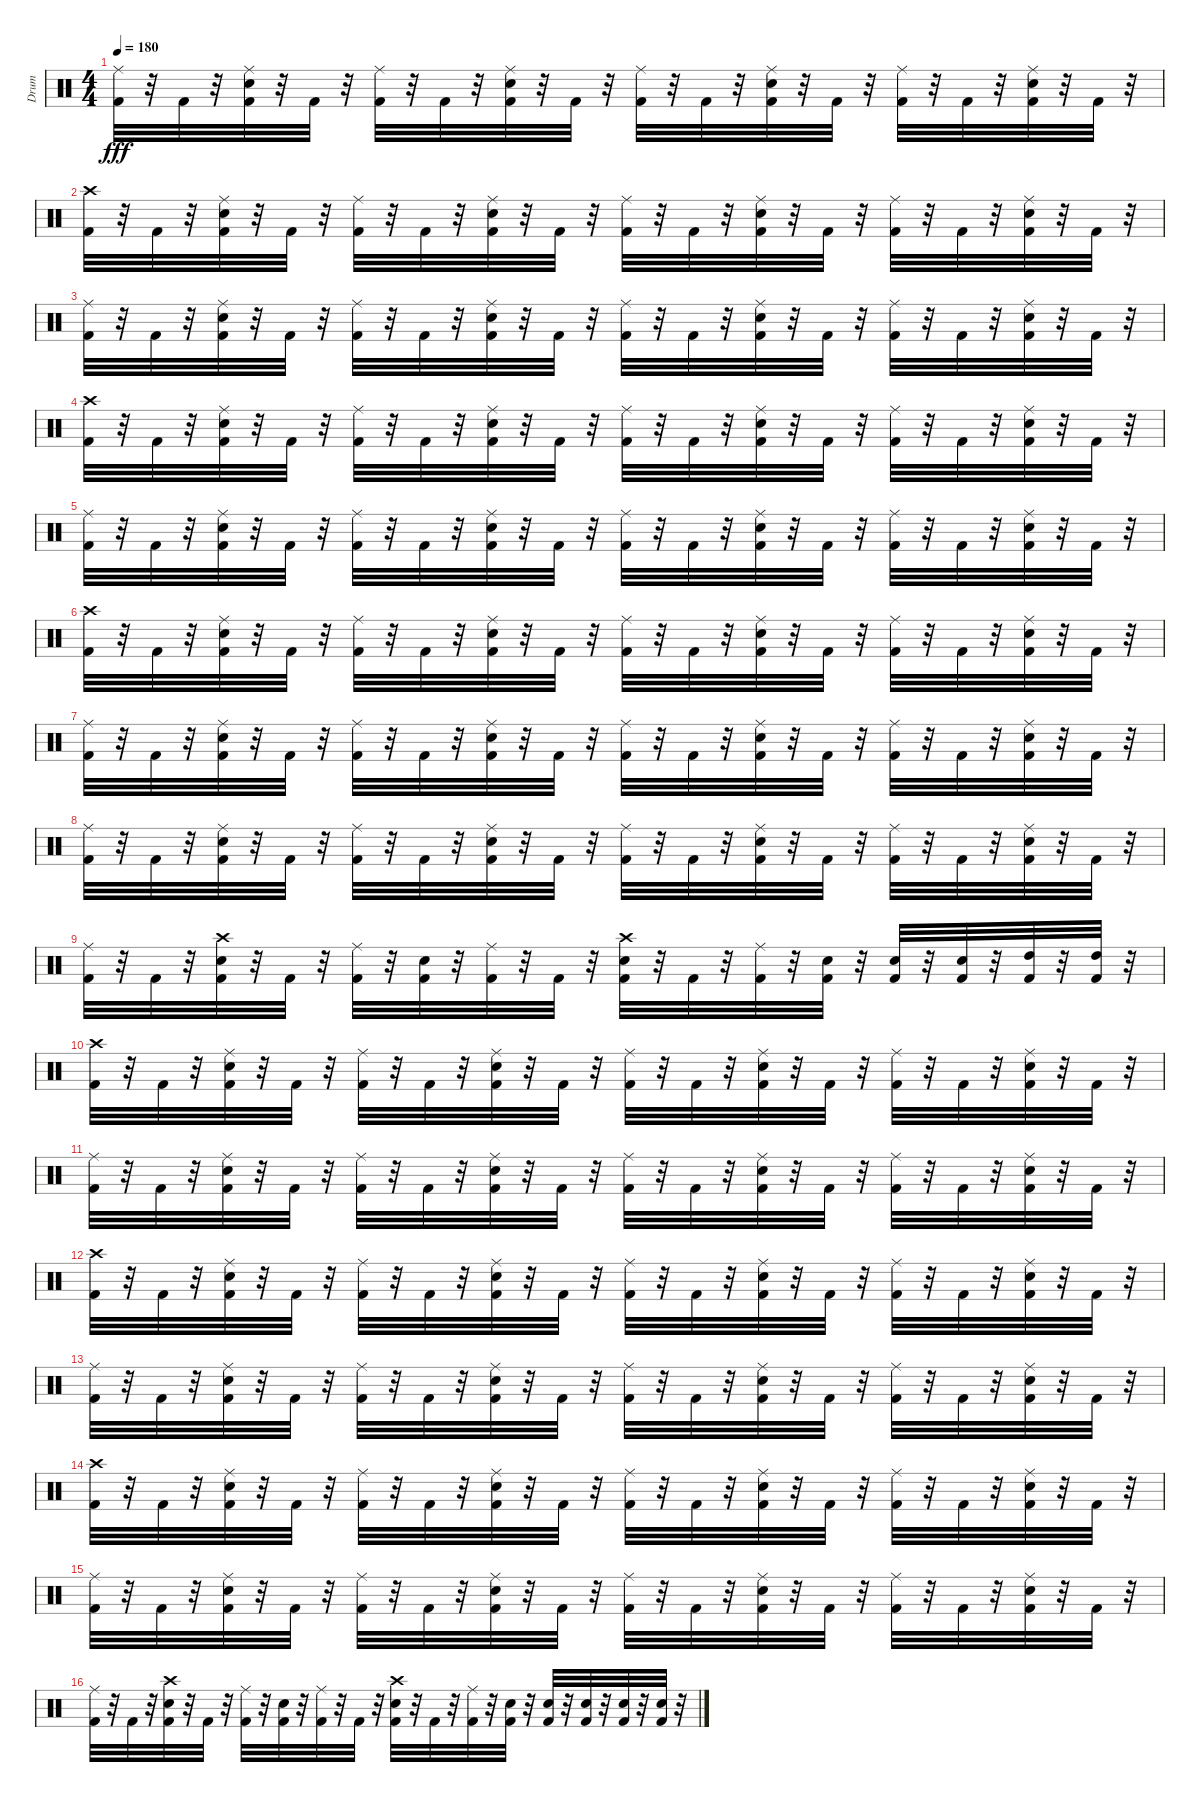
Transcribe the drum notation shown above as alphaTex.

\track ("Drum" "Drum") {instrument percussion}
\staff {score}
\articulation defaults
\ts (4 4)
\tempo 180
\clef neutral
\ks c
("Ride (middle)" "Kick (hit) 2").32{dy fff} r.32 "Kick (hit) 2".32 r.32 ("Ride (middle)" "Kick (hit) 2" "Snare (hit) 2").32 r.32 "Kick (hit) 2".32 r.32 ("Ride (middle)" "Kick (hit) 2").32 r.32 "Kick (hit) 2".32 r.32 ("Ride (middle)" "Kick (hit) 2" "Snare (hit) 2").32 r.32 "Kick (hit) 2".32 r.32 ("Ride (middle)" "Kick (hit) 2").32 r.32 "Kick (hit) 2".32 r.32 ("Ride (middle)" "Kick (hit) 2" "Snare (hit) 2").32 r.32 "Kick (hit) 2".32 r.32 ("Ride (middle)" "Kick (hit) 2").32 r.32 "Kick (hit) 2".32 r.32 ("Ride (middle)" "Kick (hit) 2" "Snare (hit) 2").32 r.32 "Kick (hit) 2".32 r.32 |
("Kick (hit) 2" "Crash high (hit)").32 r.32 "Kick (hit) 2".32 r.32 ("Kick (hit) 2" "Snare (hit) 2" "Ride (middle)").32 r.32 "Kick (hit) 2".32 r.32 ("Kick (hit) 2" "Ride (middle)").32 r.32 "Kick (hit) 2".32 r.32 ("Kick (hit) 2" "Snare (hit) 2" "Ride (middle)").32 r.32 "Kick (hit) 2".32 r.32 ("Kick (hit) 2" "Ride (middle)").32 r.32 "Kick (hit) 2".32 r.32 ("Kick (hit) 2" "Snare (hit) 2" "Ride (middle)").32 r.32 "Kick (hit) 2".32 r.32 ("Kick (hit) 2" "Ride (middle)").32 r.32 "Kick (hit) 2".32 r.32 ("Kick (hit) 2" "Snare (hit) 2" "Ride (middle)").32 r.32 "Kick (hit) 2".32 r.32 |
("Ride (middle)" "Kick (hit) 2").32 r.32 "Kick (hit) 2".32 r.32 ("Ride (middle)" "Kick (hit) 2" "Snare (hit) 2").32 r.32 "Kick (hit) 2".32 r.32 ("Ride (middle)" "Kick (hit) 2").32 r.32 "Kick (hit) 2".32 r.32 ("Ride (middle)" "Kick (hit) 2" "Snare (hit) 2").32 r.32 "Kick (hit) 2".32 r.32 ("Ride (middle)" "Kick (hit) 2").32 r.32 "Kick (hit) 2".32 r.32 ("Ride (middle)" "Kick (hit) 2" "Snare (hit) 2").32 r.32 "Kick (hit) 2".32 r.32 ("Ride (middle)" "Kick (hit) 2").32 r.32 "Kick (hit) 2".32 r.32 ("Ride (middle)" "Kick (hit) 2" "Snare (hit) 2").32 r.32 "Kick (hit) 2".32 r.32 |
("Kick (hit) 2" "Crash high (hit)").32 r.32 "Kick (hit) 2".32 r.32 ("Kick (hit) 2" "Snare (hit) 2" "Ride (middle)").32 r.32 "Kick (hit) 2".32 r.32 ("Kick (hit) 2" "Ride (middle)").32 r.32 "Kick (hit) 2".32 r.32 ("Kick (hit) 2" "Snare (hit) 2" "Ride (middle)").32 r.32 "Kick (hit) 2".32 r.32 ("Kick (hit) 2" "Ride (middle)").32 r.32 "Kick (hit) 2".32 r.32 ("Kick (hit) 2" "Snare (hit) 2" "Ride (middle)").32 r.32 "Kick (hit) 2".32 r.32 ("Kick (hit) 2" "Ride (middle)").32 r.32 "Kick (hit) 2".32 r.32 ("Kick (hit) 2" "Snare (hit) 2" "Ride (middle)").32 r.32 "Kick (hit) 2".32 r.32 |
("Ride (middle)" "Kick (hit) 2").32 r.32 "Kick (hit) 2".32 r.32 ("Ride (middle)" "Kick (hit) 2" "Snare (hit) 2").32 r.32 "Kick (hit) 2".32 r.32 ("Ride (middle)" "Kick (hit) 2").32 r.32 "Kick (hit) 2".32 r.32 ("Ride (middle)" "Kick (hit) 2" "Snare (hit) 2").32 r.32 "Kick (hit) 2".32 r.32 ("Ride (middle)" "Kick (hit) 2").32 r.32 "Kick (hit) 2".32 r.32 ("Ride (middle)" "Kick (hit) 2" "Snare (hit) 2").32 r.32 "Kick (hit) 2".32 r.32 ("Ride (middle)" "Kick (hit) 2").32 r.32 "Kick (hit) 2".32 r.32 ("Ride (middle)" "Kick (hit) 2" "Snare (hit) 2").32 r.32 "Kick (hit) 2".32 r.32 |
("Kick (hit) 2" "Crash high (hit)").32 r.32 "Kick (hit) 2".32 r.32 ("Kick (hit) 2" "Snare (hit) 2" "Ride (middle)").32 r.32 "Kick (hit) 2".32 r.32 ("Kick (hit) 2" "Ride (middle)").32 r.32 "Kick (hit) 2".32 r.32 ("Kick (hit) 2" "Snare (hit) 2" "Ride (middle)").32 r.32 "Kick (hit) 2".32 r.32 ("Kick (hit) 2" "Ride (middle)").32 r.32 "Kick (hit) 2".32 r.32 ("Kick (hit) 2" "Snare (hit) 2" "Ride (middle)").32 r.32 "Kick (hit) 2".32 r.32 ("Kick (hit) 2" "Ride (middle)").32 r.32 "Kick (hit) 2".32 r.32 ("Kick (hit) 2" "Snare (hit) 2" "Ride (middle)").32 r.32 "Kick (hit) 2".32 r.32 |
("Ride (middle)" "Kick (hit) 2").32 r.32 "Kick (hit) 2".32 r.32 ("Ride (middle)" "Kick (hit) 2" "Snare (hit) 2").32 r.32 "Kick (hit) 2".32 r.32 ("Ride (middle)" "Kick (hit) 2").32 r.32 "Kick (hit) 2".32 r.32 ("Ride (middle)" "Kick (hit) 2" "Snare (hit) 2").32 r.32 "Kick (hit) 2".32 r.32 ("Ride (middle)" "Kick (hit) 2").32 r.32 "Kick (hit) 2".32 r.32 ("Ride (middle)" "Kick (hit) 2" "Snare (hit) 2").32 r.32 "Kick (hit) 2".32 r.32 ("Ride (middle)" "Kick (hit) 2").32 r.32 "Kick (hit) 2".32 r.32 ("Ride (middle)" "Kick (hit) 2" "Snare (hit) 2").32 r.32 "Kick (hit) 2".32 r.32 |
("Ride (middle)" "Kick (hit) 2").32 r.32 "Kick (hit) 2".32 r.32 ("Ride (middle)" "Kick (hit) 2" "Snare (hit) 2").32 r.32 "Kick (hit) 2".32 r.32 ("Ride (middle)" "Kick (hit) 2").32 r.32 "Kick (hit) 2".32 r.32 ("Ride (middle)" "Kick (hit) 2" "Snare (hit) 2").32 r.32 "Kick (hit) 2".32 r.32 ("Ride (middle)" "Kick (hit) 2").32 r.32 "Kick (hit) 2".32 r.32 ("Ride (middle)" "Kick (hit) 2" "Snare (hit) 2").32 r.32 "Kick (hit) 2".32 r.32 ("Ride (middle)" "Kick (hit) 2").32 r.32 "Kick (hit) 2".32 r.32 ("Ride (middle)" "Kick (hit) 2" "Snare (hit) 2").32 r.32 "Kick (hit) 2".32 r.32 |
("Ride (middle)" "Kick (hit) 2").32 r.32 "Kick (hit) 2".32 r.32 ("Snare (hit) 2" "Crash high (hit)" "Kick (hit) 2").32 r.32 "Kick (hit) 2".32 r.32 ("Ride (middle)" "Kick (hit) 2").32 r.32 ("Snare (hit) 2" "Kick (hit) 2").32 r.32 ("Ride (middle)" "Kick (hit) 2").32 r.32 "Kick (hit) 2".32 r.32 ("Snare (hit) 2" "Crash high (hit)" "Kick (hit) 2").32 r.32 "Kick (hit) 2".32 r.32 ("Ride (middle)" "Kick (hit) 2").32 r.32 ("Snare (hit) 2" "Kick (hit) 2").32 r.32 ("Snare (hit) 2" "Kick (hit) 2").32 r.32 ("Snare (hit) 2" "Kick (hit) 2").32 r.32 ("High Tom (hit)" "Kick (hit) 2").32 r.32 ("High Tom (hit)" "Kick (hit) 2").32 r.32 |
("Kick (hit) 2" "Crash high (hit)").32 r.32 "Kick (hit) 2".32 r.32 ("Kick (hit) 2" "Snare (hit) 2" "Ride (middle)").32 r.32 "Kick (hit) 2".32 r.32 ("Kick (hit) 2" "Ride (middle)").32 r.32 "Kick (hit) 2".32 r.32 ("Kick (hit) 2" "Snare (hit) 2" "Ride (middle)").32 r.32 "Kick (hit) 2".32 r.32 ("Kick (hit) 2" "Ride (middle)").32 r.32 "Kick (hit) 2".32 r.32 ("Kick (hit) 2" "Snare (hit) 2" "Ride (middle)").32 r.32 "Kick (hit) 2".32 r.32 ("Kick (hit) 2" "Ride (middle)").32 r.32 "Kick (hit) 2".32 r.32 ("Kick (hit) 2" "Snare (hit) 2" "Ride (middle)").32 r.32 "Kick (hit) 2".32 r.32 |
("Ride (middle)" "Kick (hit) 2").32 r.32 "Kick (hit) 2".32 r.32 ("Ride (middle)" "Kick (hit) 2" "Snare (hit) 2").32 r.32 "Kick (hit) 2".32 r.32 ("Ride (middle)" "Kick (hit) 2").32 r.32 "Kick (hit) 2".32 r.32 ("Ride (middle)" "Kick (hit) 2" "Snare (hit) 2").32 r.32 "Kick (hit) 2".32 r.32 ("Ride (middle)" "Kick (hit) 2").32 r.32 "Kick (hit) 2".32 r.32 ("Ride (middle)" "Kick (hit) 2" "Snare (hit) 2").32 r.32 "Kick (hit) 2".32 r.32 ("Ride (middle)" "Kick (hit) 2").32 r.32 "Kick (hit) 2".32 r.32 ("Ride (middle)" "Kick (hit) 2" "Snare (hit) 2").32 r.32 "Kick (hit) 2".32 r.32 |
("Kick (hit) 2" "Crash high (hit)").32 r.32 "Kick (hit) 2".32 r.32 ("Kick (hit) 2" "Snare (hit) 2" "Ride (middle)").32 r.32 "Kick (hit) 2".32 r.32 ("Kick (hit) 2" "Ride (middle)").32 r.32 "Kick (hit) 2".32 r.32 ("Kick (hit) 2" "Snare (hit) 2" "Ride (middle)").32 r.32 "Kick (hit) 2".32 r.32 ("Kick (hit) 2" "Ride (middle)").32 r.32 "Kick (hit) 2".32 r.32 ("Kick (hit) 2" "Snare (hit) 2" "Ride (middle)").32 r.32 "Kick (hit) 2".32 r.32 ("Kick (hit) 2" "Ride (middle)").32 r.32 "Kick (hit) 2".32 r.32 ("Kick (hit) 2" "Snare (hit) 2" "Ride (middle)").32 r.32 "Kick (hit) 2".32 r.32 |
("Ride (middle)" "Kick (hit) 2").32 r.32 "Kick (hit) 2".32 r.32 ("Ride (middle)" "Kick (hit) 2" "Snare (hit) 2").32 r.32 "Kick (hit) 2".32 r.32 ("Ride (middle)" "Kick (hit) 2").32 r.32 "Kick (hit) 2".32 r.32 ("Ride (middle)" "Kick (hit) 2" "Snare (hit) 2").32 r.32 "Kick (hit) 2".32 r.32 ("Ride (middle)" "Kick (hit) 2").32 r.32 "Kick (hit) 2".32 r.32 ("Ride (middle)" "Kick (hit) 2" "Snare (hit) 2").32 r.32 "Kick (hit) 2".32 r.32 ("Ride (middle)" "Kick (hit) 2").32 r.32 "Kick (hit) 2".32 r.32 ("Ride (middle)" "Kick (hit) 2" "Snare (hit) 2").32 r.32 "Kick (hit) 2".32 r.32 |
("Kick (hit) 2" "Crash high (hit)").32 r.32 "Kick (hit) 2".32 r.32 ("Kick (hit) 2" "Snare (hit) 2" "Ride (middle)").32 r.32 "Kick (hit) 2".32 r.32 ("Kick (hit) 2" "Ride (middle)").32 r.32 "Kick (hit) 2".32 r.32 ("Kick (hit) 2" "Snare (hit) 2" "Ride (middle)").32 r.32 "Kick (hit) 2".32 r.32 ("Kick (hit) 2" "Ride (middle)").32 r.32 "Kick (hit) 2".32 r.32 ("Kick (hit) 2" "Snare (hit) 2" "Ride (middle)").32 r.32 "Kick (hit) 2".32 r.32 ("Kick (hit) 2" "Ride (middle)").32 r.32 "Kick (hit) 2".32 r.32 ("Kick (hit) 2" "Snare (hit) 2" "Ride (middle)").32 r.32 "Kick (hit) 2".32 r.32 |
("Ride (middle)" "Kick (hit) 2").32 r.32 "Kick (hit) 2".32 r.32 ("Ride (middle)" "Kick (hit) 2" "Snare (hit) 2").32 r.32 "Kick (hit) 2".32 r.32 ("Ride (middle)" "Kick (hit) 2").32 r.32 "Kick (hit) 2".32 r.32 ("Ride (middle)" "Kick (hit) 2" "Snare (hit) 2").32 r.32 "Kick (hit) 2".32 r.32 ("Ride (middle)" "Kick (hit) 2").32 r.32 "Kick (hit) 2".32 r.32 ("Ride (middle)" "Kick (hit) 2" "Snare (hit) 2").32 r.32 "Kick (hit) 2".32 r.32 ("Ride (middle)" "Kick (hit) 2").32 r.32 "Kick (hit) 2".32 r.32 ("Ride (middle)" "Kick (hit) 2" "Snare (hit) 2").32 r.32 "Kick (hit) 2".32 r.32 |
("Ride (middle)" "Kick (hit) 2").32 r.32 "Kick (hit) 2".32 r.32 ("Snare (hit) 2" "Crash high (hit)" "Kick (hit) 2").32 r.32 "Kick (hit) 2".32 r.32 ("Ride (middle)" "Kick (hit) 2").32 r.32 ("Snare (hit) 2" "Kick (hit) 2").32 r.32 ("Ride (middle)" "Kick (hit) 2").32 r.32 "Kick (hit) 2".32 r.32 ("Snare (hit) 2" "Crash high (hit)" "Kick (hit) 2").32 r.32 "Kick (hit) 2".32 r.32 ("Ride (middle)" "Kick (hit) 2").32 r.32 ("Snare (hit) 2" "Kick (hit) 2").32 r.32 ("Snare (hit) 2" "Kick (hit) 2").32 r.32 ("Snare (hit) 2" "Kick (hit) 2").32 r.32 ("Kick (hit) 2" "Snare (hit) 2").32 r.32 ("Kick (hit) 2" "Snare (hit) 2").32 r.32
